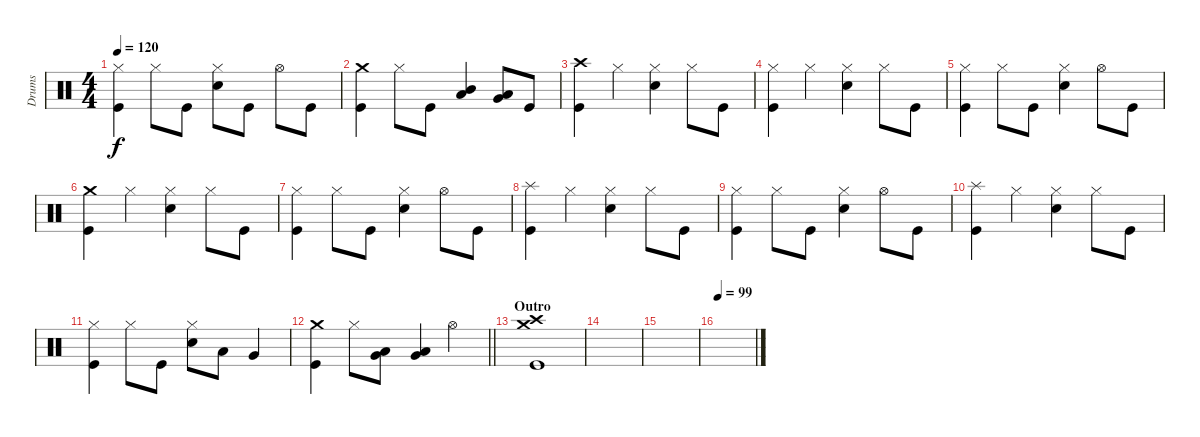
\track ("Drums" "Drums") {instrument percussion}
\staff {score}
\articulation defaults
\ts (4 4)
\tempo 120
\clef neutral
\ks c
("Kick (hit)" "Hi-Hat (closed)").4{dy f} "Hi-Hat (closed)".8 "Kick (hit)".8 ("Snare (hit) 2" "Hi-Hat (closed)").8 "Kick (hit)".8 "Hi-Hat (open)".8 "Kick (hit)".8 |
("Kick (hit)" "Crash medium (hit)").4 "Hi-Hat (closed)".8 "Kick (hit)".8 ("Low Tom (hit)" "Mid Tom (hit)").4 ("Low Tom (hit)" "Very Low Tom (hit)").8 "Kick (hit)".8 |
("Kick (hit)" "Crash high (hit)").4 "Hi-Hat (closed)".4 ("Snare (hit) 2" "Hi-Hat (closed)").4 "Hi-Hat (closed)".8 "Kick (hit)".8 |
("Kick (hit)" "Hi-Hat (closed)").4 "Hi-Hat (closed)".4 ("Snare (hit) 2" "Hi-Hat (closed)").4 "Hi-Hat (closed)".8 "Kick (hit)".8 |
("Kick (hit)" "Hi-Hat (closed)").4 "Hi-Hat (closed)".8 "Kick (hit)".8 ("Snare (hit) 2" "Hi-Hat (closed)").4 "Hi-Hat (open)".8 "Kick (hit)".8 |
("Kick (hit)" "Crash medium (hit)").4 "Hi-Hat (closed)".4 ("Snare (hit) 2" "Hi-Hat (closed)").4 "Hi-Hat (closed)".8 "Kick (hit)".8 |
("Kick (hit)" "Hi-Hat (closed)").4 "Hi-Hat (closed)".8 "Kick (hit)".8 ("Snare (hit) 2" "Hi-Hat (closed)").4 "Hi-Hat (open)".8 "Kick (hit)".8 |
("Kick (hit)" "Splash (hit)").4 "Hi-Hat (closed)".4 ("Snare (hit) 2" "Hi-Hat (closed)").4 "Hi-Hat (closed)".8 "Kick (hit)".8 |
("Kick (hit)" "Hi-Hat (closed)").4 "Hi-Hat (closed)".8 "Kick (hit)".8 ("Snare (hit) 2" "Hi-Hat (closed)").4 "Hi-Hat (open)".8 "Kick (hit)".8 |
("Kick (hit)" "Splash (hit)").4 "Hi-Hat (closed)".4 ("Snare (hit) 2" "Hi-Hat (closed)").4 "Hi-Hat (closed)".8 "Kick (hit)".8 |
("Kick (hit)" "Hi-Hat (closed)").4 "Hi-Hat (closed)".8 "Kick (hit)".8 ("Snare (hit) 2" "Hi-Hat (closed)").8 "Low Tom (hit)".8 "Very Low Tom (hit)".4 |
\barLineRight lightlight
("Kick (hit)" "Crash medium (hit)").4 "Hi-Hat (closed)".8 ("Very Low Tom (hit)" "Low Tom (hit)").8 ("Low Floor Tom (hit)" "Very Low Tom (hit)").4 "Hi-Hat (open)".4 |
\section ("" "Outro")
("Kick (hit)" "Crash medium (hit)" "Crash high (hit)").1 |
|
|
\tempo 99
